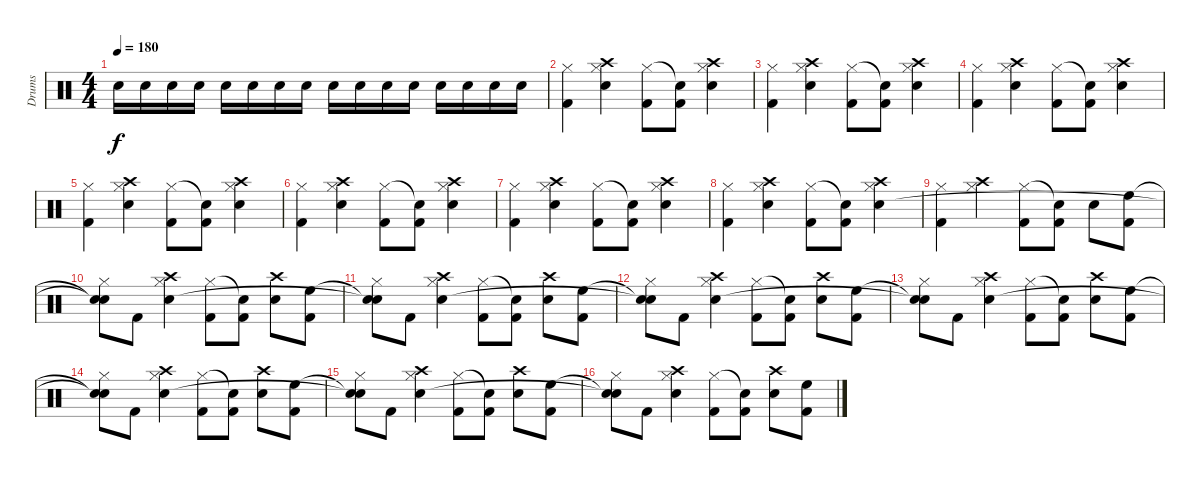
\track ("Drums" "Drums") {instrument percussion}
\staff {score}
\articulation defaults
\ts (4 4)
\tempo 180
\clef neutral
\ks c "Snare (hit) 2".16{dy f} "Snare (hit) 2".16 "Snare (hit) 2".16 "Snare (hit) 2".16 "Snare (hit) 2".16 "Snare (hit) 2".16 "Snare (hit) 2".16 "Snare (hit) 2".16 "Snare (hit) 2".16 "Snare (hit) 2".16 "Snare (hit) 2".16 "Snare (hit) 2".16 "Snare (hit) 2".16 "Snare (hit) 2".16 "Snare (hit) 2".16 "Snare (hit) 2".16
|
("Hi-Hat (closed)" "Kick (hit) 2").4 ("Crash high (hit)" "Hi-Hat (closed)" "Snare (hit) 2").4 ("Hi-Hat (closed)" "Kick (hit) 2").8 ("Snare (hit)"{t} "Kick (hit) 2").8 ("Crash high (hit)" "Hi-Hat (closed)" "Snare (hit) 2").4 |
("Hi-Hat (closed)" "Kick (hit) 2").4 ("Crash high (hit)" "Hi-Hat (closed)" "Snare (hit) 2").4 ("Hi-Hat (closed)" "Kick (hit) 2").8 ("Snare (hit)"{t} "Kick (hit) 2").8 ("Crash high (hit)" "Hi-Hat (closed)" "Snare (hit) 2").4 |
("Hi-Hat (closed)" "Kick (hit) 2").4 ("Crash high (hit)" "Hi-Hat (closed)" "Snare (hit) 2").4 ("Hi-Hat (closed)" "Kick (hit) 2").8 ("Snare (hit)"{t} "Kick (hit) 2").8 ("Crash high (hit)" "Hi-Hat (closed)" "Snare (hit) 2").4 |
("Hi-Hat (closed)" "Kick (hit) 2").4 ("Crash high (hit)" "Hi-Hat (closed)" "Snare (hit) 2").4 ("Hi-Hat (closed)" "Kick (hit) 2").8 ("Snare (hit)"{t} "Kick (hit) 2").8 ("Crash high (hit)" "Hi-Hat (closed)" "Snare (hit) 2").4 |
("Hi-Hat (closed)" "Kick (hit) 2").4 ("Crash high (hit)" "Hi-Hat (closed)" "Snare (hit) 2").4 ("Hi-Hat (closed)" "Kick (hit) 2").8 ("Snare (hit)"{t} "Kick (hit) 2").8 ("Crash high (hit)" "Hi-Hat (closed)" "Snare (hit) 2").4 |
("Hi-Hat (closed)" "Kick (hit) 2").4 ("Crash high (hit)" "Hi-Hat (closed)" "Snare (hit) 2").4 ("Hi-Hat (closed)" "Kick (hit) 2").8 ("Snare (hit)"{t} "Kick (hit) 2").8 ("Crash high (hit)" "Hi-Hat (closed)" "Snare (hit) 2").4 |
("Hi-Hat (closed)" "Kick (hit) 2").4 ("Crash high (hit)" "Hi-Hat (closed)" "Snare (hit) 2").4 ("Hi-Hat (closed)" "Kick (hit) 2").8 ("Snare (hit)"{t} "Kick (hit) 2").8 ("Crash high (hit)" "Hi-Hat (closed)" "Snare (hit) 2").4 |
("Hi-Hat (closed)" "Kick (hit) 2").4 ("Crash high (hit)" "Hi-Hat (closed)").4 ("Hi-Hat (closed)" "Kick (hit) 2").8 ("Snare (hit)"{t} "Kick (hit) 2").8 "Snare (hit) 2".8 ("High Floor Tom (hit)" "Kick (hit) 2").8 |
("Snare (hit)"{t} "Hi-Hat (closed)" "Snare (hit)"{t}).8 "Kick (hit) 2".8 ("Crash high (hit)" "Hi-Hat (closed)" "Snare (hit) 2").4 ("Hi-Hat (closed)" "Kick (hit) 2").8 ("Snare (hit)"{t} "Kick (hit) 2").8 ("Crash high (hit)" "Snare (hit) 2").8 ("High Floor Tom (hit)" "Kick (hit) 2").8 |
("Snare (hit)"{t} "Hi-Hat (closed)" "Snare (hit)"{t}).8 "Kick (hit) 2".8 ("Crash high (hit)" "Hi-Hat (closed)" "Snare (hit) 2").4 ("Hi-Hat (closed)" "Kick (hit) 2").8 ("Snare (hit)"{t} "Kick (hit) 2").8 ("Crash high (hit)" "Snare (hit) 2").8 ("High Floor Tom (hit)" "Kick (hit) 2").8 |
("Snare (hit)"{t} "Hi-Hat (closed)" "Snare (hit)"{t}).8 "Kick (hit) 2".8 ("Crash high (hit)" "Hi-Hat (closed)" "Snare (hit) 2").4 ("Hi-Hat (closed)" "Kick (hit) 2").8 ("Snare (hit)"{t} "Kick (hit) 2").8 ("Crash high (hit)" "Snare (hit) 2").8 ("High Floor Tom (hit)" "Kick (hit) 2").8 |
("Snare (hit)"{t} "Hi-Hat (closed)" "Snare (hit)"{t}).8 "Kick (hit) 2".8 ("Crash high (hit)" "Hi-Hat (closed)" "Snare (hit) 2").4 ("Hi-Hat (closed)" "Kick (hit) 2").8 ("Snare (hit)"{t} "Kick (hit) 2").8 ("Crash high (hit)" "Snare (hit) 2").8 ("High Floor Tom (hit)" "Kick (hit) 2").8 |
("Snare (hit)"{t} "Hi-Hat (closed)" "Snare (hit)"{t}).8 "Kick (hit) 2".8 ("Crash high (hit)" "Hi-Hat (closed)" "Snare (hit) 2").4 ("Hi-Hat (closed)" "Kick (hit) 2").8 ("Snare (hit)"{t} "Kick (hit) 2").8 ("Crash high (hit)" "Snare (hit) 2").8 ("High Floor Tom (hit)" "Kick (hit) 2").8 |
("Snare (hit)"{t} "Hi-Hat (closed)" "Snare (hit)"{t}).8 "Kick (hit) 2".8 ("Crash high (hit)" "Hi-Hat (closed)" "Snare (hit) 2").4 ("Hi-Hat (closed)" "Kick (hit) 2").8 ("Snare (hit)"{t} "Kick (hit) 2").8 ("Crash high (hit)" "Snare (hit) 2").8 ("High Floor Tom (hit)" "Kick (hit) 2").8 |
("Snare (hit)"{t} "Hi-Hat (closed)" "Snare (hit)"{t}).8 "Kick (hit) 2".8 ("Crash high (hit)" "Hi-Hat (closed)" "Snare (hit) 2").4 ("Hi-Hat (closed)" "Kick (hit) 2").8 ("Snare (hit)"{t} "Kick (hit) 2").8 ("Crash high (hit)" "Snare (hit) 2").8 ("High Floor Tom (hit)" "Kick (hit) 2").8
